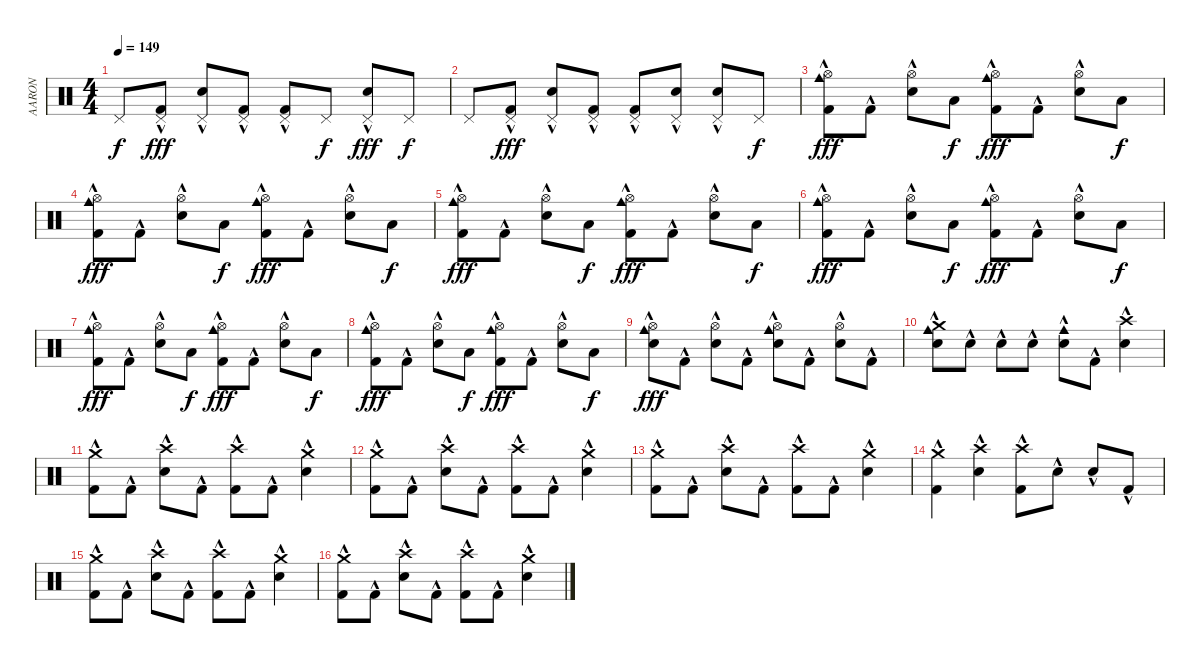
\track ("AARON" "AARON") {instrument percussion}
\staff {score}
\articulation defaults
\ts (4 4)
\tempo 149
\clef neutral
\ks c "Pedal Hi-Hat (hit)".8{dy f}
("Pedal Hi-Hat (hit)" "Kick (hit) 2"{hac}).8{dy fff} ("Pedal Hi-Hat (hit)" "Snare (hit) 2"{hac}).8 ("Pedal Hi-Hat (hit)" "Kick (hit) 2"{hac}).8 ("Pedal Hi-Hat (hit)" "Kick (hit) 2"{hac}).8 "Pedal Hi-Hat (hit)".8{dy f} ("Pedal Hi-Hat (hit)" "Snare (hit) 2"{hac}).8{dy fff} "Pedal Hi-Hat (hit)".8{dy f} |
"Pedal Hi-Hat (hit)".8 ("Pedal Hi-Hat (hit)" "Kick (hit) 2"{hac}).8{dy fff} ("Pedal Hi-Hat (hit)" "Snare (hit) 2"{hac}).8 ("Pedal Hi-Hat (hit)" "Kick (hit) 2"{hac}).8 ("Pedal Hi-Hat (hit)" "Kick (hit) 2"{hac}).8 ("Pedal Hi-Hat (hit)" "Snare (hit) 2"{hac}).8 ("Pedal Hi-Hat (hit)" "Snare (hit) 2"{hac}).8 "Pedal Hi-Hat (hit)".8{dy f} |
("Hi-Hat (open)" "Cowbell medium (hit)" "Kick (hit) 2"{hac}).8{dy fff} "Kick (hit) 2"{hac}.8 ("Hi-Hat (open)" "Snare (hit) 2"{hac}).8 "Low Tom (hit)".8{dy f} ("Hi-Hat (open)" "Cowbell medium (hit)" "Kick (hit) 2"{hac}).8{dy fff} "Kick (hit) 2"{hac}.8 ("Hi-Hat (open)" "Snare (hit) 2"{hac}).8 "Low Tom (hit)".8{dy f} |
("Hi-Hat (open)" "Cowbell medium (hit)" "Kick (hit) 2"{hac}).8{dy fff} "Kick (hit) 2"{hac}.8 ("Hi-Hat (open)" "Snare (hit) 2"{hac}).8 "Low Tom (hit)".8{dy f} ("Hi-Hat (open)" "Cowbell medium (hit)" "Kick (hit) 2"{hac}).8{dy fff} "Kick (hit) 2"{hac}.8 ("Hi-Hat (open)" "Snare (hit) 2"{hac}).8 "Low Tom (hit)".8{dy f} |
("Hi-Hat (open)" "Cowbell medium (hit)" "Kick (hit) 2"{hac}).8{dy fff} "Kick (hit) 2"{hac}.8 ("Hi-Hat (open)" "Snare (hit) 2"{hac}).8 "Low Tom (hit)".8{dy f} ("Hi-Hat (open)" "Cowbell medium (hit)" "Kick (hit) 2"{hac}).8{dy fff} "Kick (hit) 2"{hac}.8 ("Hi-Hat (open)" "Snare (hit) 2"{hac}).8 "Low Tom (hit)".8{dy f} |
("Hi-Hat (open)" "Cowbell medium (hit)" "Kick (hit) 2"{hac}).8{dy fff} "Kick (hit) 2"{hac}.8 ("Hi-Hat (open)" "Snare (hit) 2"{hac}).8 "Low Tom (hit)".8{dy f} ("Hi-Hat (open)" "Cowbell medium (hit)" "Kick (hit) 2"{hac}).8{dy fff} "Kick (hit) 2"{hac}.8 ("Hi-Hat (open)" "Snare (hit) 2"{hac}).8 "Low Tom (hit)".8{dy f} |
("Hi-Hat (open)" "Cowbell medium (hit)" "Kick (hit) 2"{hac}).8{dy fff} "Kick (hit) 2"{hac}.8 ("Hi-Hat (open)" "Snare (hit) 2"{hac}).8 "Low Tom (hit)".8{dy f} ("Hi-Hat (open)" "Cowbell medium (hit)" "Kick (hit) 2"{hac}).8{dy fff} "Kick (hit) 2"{hac}.8 ("Hi-Hat (open)" "Snare (hit) 2"{hac}).8 "Low Tom (hit)".8{dy f} |
("Hi-Hat (open)" "Cowbell medium (hit)" "Kick (hit) 2"{hac}).8{dy fff} "Kick (hit) 2"{hac}.8 ("Hi-Hat (open)" "Snare (hit) 2"{hac}).8 "Low Tom (hit)".8{dy f} ("Hi-Hat (open)" "Cowbell medium (hit)" "Kick (hit) 2"{hac}).8{dy fff} "Kick (hit) 2"{hac}.8 ("Hi-Hat (open)" "Snare (hit) 2"{hac}).8 "Low Tom (hit)".8{dy f} |
("Hi-Hat (open)" "Cowbell medium (hit)" "Snare (hit) 2"{hac}).8{dy fff} "Kick (hit) 2"{hac}.8 ("Hi-Hat (open)" "Snare (hit) 2"{hac}).8 "Kick (hit) 2"{hac}.8 ("Hi-Hat (open)" "Cowbell medium (hit)" "Snare (hit) 2"{hac}).8 "Kick (hit) 2"{hac}.8 ("Hi-Hat (open)" "Snare (hit) 2"{hac}).8 "Kick (hit) 2"{hac}.8 |
("Crash medium (hit)" "Cowbell medium (hit)" "Snare (hit) 2"{hac}).8 "Snare (hit) 2"{hac}.8 "Snare (hit) 2"{hac}.8 "Snare (hit) 2"{hac}.8 ("Cowbell medium (hit)" "Snare (hit) 2"{hac}).8 "Kick (hit) 2"{hac}.8 ("Crash high (hit)" "Snare (hit) 2"{hac}).4 |
("Crash medium (hit)" "Kick (hit) 2"{hac}).8 "Kick (hit) 2"{hac}.8 ("Crash high (hit)" "Snare (hit) 2"{hac}).8 "Kick (hit) 2"{hac}.8 ("Crash high (hit)" "Kick (hit) 2"{hac}).8 "Kick (hit) 2"{hac}.8 ("Crash medium (hit)" "Snare (hit) 2"{hac}).4 |
("Crash medium (hit)" "Kick (hit) 2"{hac}).8 "Kick (hit) 2"{hac}.8 ("Crash high (hit)" "Snare (hit) 2"{hac}).8 "Kick (hit) 2"{hac}.8 ("Crash high (hit)" "Kick (hit) 2"{hac}).8 "Kick (hit) 2"{hac}.8 ("Crash medium (hit)" "Snare (hit) 2"{hac}).4 |
("Crash medium (hit)" "Kick (hit) 2"{hac}).8 "Kick (hit) 2"{hac}.8 ("Crash high (hit)" "Snare (hit) 2"{hac}).8 "Kick (hit) 2"{hac}.8 ("Crash high (hit)" "Kick (hit) 2"{hac}).8 "Kick (hit) 2"{hac}.8 ("Crash medium (hit)" "Snare (hit) 2"{hac}).4 |
("Crash medium (hit)" "Kick (hit) 2"{hac}).4 ("Crash high (hit)" "Snare (hit) 2"{hac}).4 ("Crash high (hit)" "Kick (hit) 2"{hac}).8 "Snare (hit) 2"{hac}.8 "Snare (hit) 2"{hac}.8 "Kick (hit) 2"{hac}.8 |
("Crash medium (hit)" "Kick (hit) 2"{hac}).8 "Kick (hit) 2"{hac}.8 ("Crash high (hit)" "Snare (hit) 2"{hac}).8 "Kick (hit) 2"{hac}.8 ("Crash high (hit)" "Kick (hit) 2"{hac}).8 "Kick (hit) 2"{hac}.8 ("Crash medium (hit)" "Snare (hit) 2"{hac}).4 |
("Crash medium (hit)" "Kick (hit) 2"{hac}).8 "Kick (hit) 2"{hac}.8 ("Crash high (hit)" "Snare (hit) 2"{hac}).8 "Kick (hit) 2"{hac}.8 ("Crash high (hit)" "Kick (hit) 2"{hac}).8 "Kick (hit) 2"{hac}.8 ("Crash medium (hit)" "Snare (hit) 2"{hac}).4
